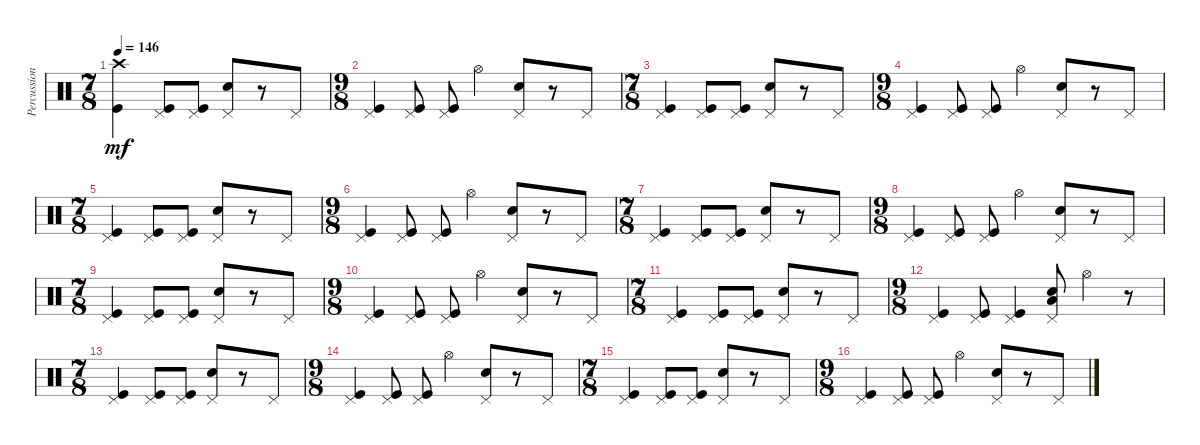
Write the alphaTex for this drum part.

\track ("Percussion" "Percussion") {instrument percussion}
\staff {score}
\articulation defaults
\ts (7 8)
\tempo 146
\clef neutral
\ks c
("Crash high (hit)" "Kick (hit)").4{dy mf} ("Pedal Hi-Hat (hit)" "Kick (hit)").8 ("Pedal Hi-Hat (hit)" "Kick (hit)").8 ("Pedal Hi-Hat (hit)" "Snare (hit) 2").8 r.8 "Pedal Hi-Hat (hit)".8 |
\ts (9 8)
("Pedal Hi-Hat (hit)" "Kick (hit)").4 ("Pedal Hi-Hat (hit)" "Kick (hit)").8 ("Pedal Hi-Hat (hit)" "Kick (hit)").8 "Hi-Hat (open)".4 ("Pedal Hi-Hat (hit)" "Snare (hit) 2").8 r.8 "Pedal Hi-Hat (hit)".8 |
\ts (7 8)
("Pedal Hi-Hat (hit)" "Kick (hit)").4 ("Pedal Hi-Hat (hit)" "Kick (hit)").8 ("Pedal Hi-Hat (hit)" "Kick (hit)").8 ("Pedal Hi-Hat (hit)" "Snare (hit) 2").8 r.8 "Pedal Hi-Hat (hit)".8 |
\ts (9 8)
("Pedal Hi-Hat (hit)" "Kick (hit)").4 ("Pedal Hi-Hat (hit)" "Kick (hit)").8 ("Pedal Hi-Hat (hit)" "Kick (hit)").8 "Hi-Hat (open)".4 ("Pedal Hi-Hat (hit)" "Snare (hit) 2").8 r.8 "Pedal Hi-Hat (hit)".8 |
\ts (7 8)
("Pedal Hi-Hat (hit)" "Kick (hit)").4 ("Pedal Hi-Hat (hit)" "Kick (hit)").8 ("Pedal Hi-Hat (hit)" "Kick (hit)").8 ("Pedal Hi-Hat (hit)" "Snare (hit) 2").8 r.8 "Pedal Hi-Hat (hit)".8 |
\ts (9 8)
("Pedal Hi-Hat (hit)" "Kick (hit)").4 ("Pedal Hi-Hat (hit)" "Kick (hit)").8 ("Pedal Hi-Hat (hit)" "Kick (hit)").8 "Hi-Hat (open)".4 ("Pedal Hi-Hat (hit)" "Snare (hit) 2").8 r.8 "Pedal Hi-Hat (hit)".8 |
\ts (7 8)
("Pedal Hi-Hat (hit)" "Kick (hit)").4 ("Pedal Hi-Hat (hit)" "Kick (hit)").8 ("Pedal Hi-Hat (hit)" "Kick (hit)").8 ("Pedal Hi-Hat (hit)" "Snare (hit) 2").8 r.8 "Pedal Hi-Hat (hit)".8 |
\ts (9 8)
("Pedal Hi-Hat (hit)" "Kick (hit)").4 ("Pedal Hi-Hat (hit)" "Kick (hit)").8 ("Pedal Hi-Hat (hit)" "Kick (hit)").8 "Hi-Hat (open)".4 ("Pedal Hi-Hat (hit)" "Snare (hit) 2").8 r.8 "Pedal Hi-Hat (hit)".8 |
\ts (7 8)
("Pedal Hi-Hat (hit)" "Kick (hit)").4 ("Pedal Hi-Hat (hit)" "Kick (hit)").8 ("Pedal Hi-Hat (hit)" "Kick (hit)").8 ("Pedal Hi-Hat (hit)" "Snare (hit) 2").8 r.8 "Pedal Hi-Hat (hit)".8 |
\ts (9 8)
("Pedal Hi-Hat (hit)" "Kick (hit)").4 ("Pedal Hi-Hat (hit)" "Kick (hit)").8 ("Pedal Hi-Hat (hit)" "Kick (hit)").8 "Hi-Hat (open)".4 ("Pedal Hi-Hat (hit)" "Snare (hit) 2").8 r.8 "Pedal Hi-Hat (hit)".8 |
\ts (7 8)
("Pedal Hi-Hat (hit)" "Kick (hit)").4 ("Pedal Hi-Hat (hit)" "Kick (hit)").8 ("Pedal Hi-Hat (hit)" "Kick (hit)").8 ("Pedal Hi-Hat (hit)" "Snare (hit) 2").8 r.8 "Pedal Hi-Hat (hit)".8 |
\ts (9 8)
("Pedal Hi-Hat (hit)" "Kick (hit)").4 ("Pedal Hi-Hat (hit)" "Kick (hit)").8 ("Pedal Hi-Hat (hit)" "Kick (hit)").4 ("Pedal Hi-Hat (hit)" "Low Tom (hit)" "Snare (hit) 2").8 "Hi-Hat (open)".4 r.8 |
\ts (7 8)
("Pedal Hi-Hat (hit)" "Kick (hit)").4 ("Pedal Hi-Hat (hit)" "Kick (hit)").8 ("Pedal Hi-Hat (hit)" "Kick (hit)").8 ("Pedal Hi-Hat (hit)" "Snare (hit) 2").8 r.8 "Pedal Hi-Hat (hit)".8 |
\ts (9 8)
("Pedal Hi-Hat (hit)" "Kick (hit)").4 ("Pedal Hi-Hat (hit)" "Kick (hit)").8 ("Pedal Hi-Hat (hit)" "Kick (hit)").8 "Hi-Hat (open)".4 ("Pedal Hi-Hat (hit)" "Snare (hit) 2").8 r.8 "Pedal Hi-Hat (hit)".8 |
\ts (7 8)
("Pedal Hi-Hat (hit)" "Kick (hit)").4 ("Pedal Hi-Hat (hit)" "Kick (hit)").8 ("Pedal Hi-Hat (hit)" "Kick (hit)").8 ("Pedal Hi-Hat (hit)" "Snare (hit) 2").8 r.8 "Pedal Hi-Hat (hit)".8 |
\ts (9 8)
("Pedal Hi-Hat (hit)" "Kick (hit)").4 ("Pedal Hi-Hat (hit)" "Kick (hit)").8 ("Pedal Hi-Hat (hit)" "Kick (hit)").8 "Hi-Hat (open)".4 ("Pedal Hi-Hat (hit)" "Snare (hit) 2").8 r.8 "Pedal Hi-Hat (hit)".8
